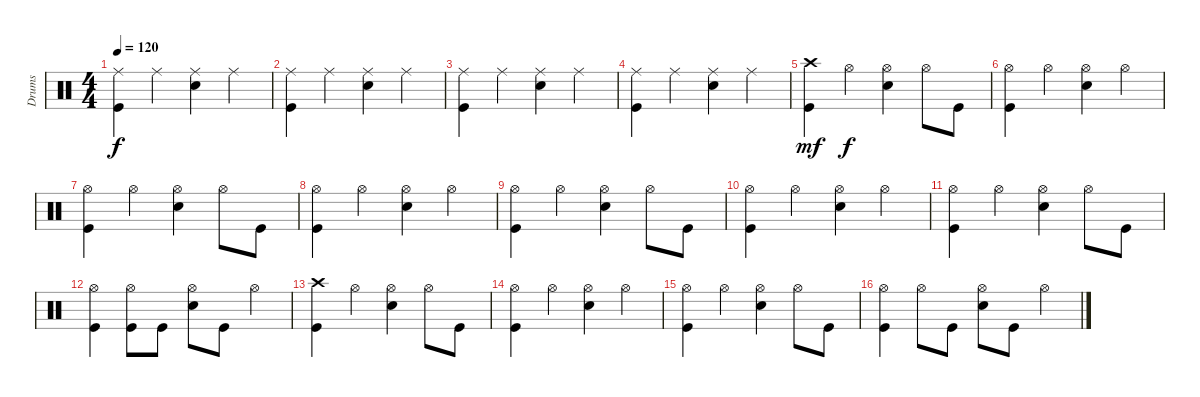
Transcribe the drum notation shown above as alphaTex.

\track ("Drums" "Drums") {instrument percussion}
\staff {score}
\articulation defaults
\ts (4 4)
\tempo 120
\clef neutral
\ks c
("Ride (middle)" "Kick (hit)").4{dy f} "Ride (middle)".4 ("Ride (middle)" "Snare (hit) 2").4 "Ride (middle)".4 |
("Ride (middle)" "Kick (hit)").4 "Ride (middle)".4 ("Ride (middle)" "Snare (hit) 2").4 "Ride (middle)".4 |
("Ride (middle)" "Kick (hit)").4 "Ride (middle)".4 ("Ride (middle)" "Snare (hit) 2").4 "Ride (middle)".4 |
("Ride (middle)" "Kick (hit)").4 "Ride (middle)".4 ("Ride (middle)" "Snare (hit) 2").4 "Ride (middle)".4 |
("Crash high (hit)" "Kick (hit)").4{dy mf} "Hi-Hat (open)".4{dy f} ("Hi-Hat (open)" "Snare (hit) 2").4 "Hi-Hat (open)".8 "Kick (hit)".8 |
("Hi-Hat (open)" "Kick (hit)").4 "Hi-Hat (open)".4 ("Hi-Hat (open)" "Snare (hit) 2").4 "Hi-Hat (open)".4 |
("Hi-Hat (open)" "Kick (hit)").4 "Hi-Hat (open)".4 ("Hi-Hat (open)" "Snare (hit) 2").4 "Hi-Hat (open)".8 "Kick (hit)".8 |
("Hi-Hat (open)" "Kick (hit)").4 "Hi-Hat (open)".4 ("Hi-Hat (open)" "Snare (hit) 2").4 "Hi-Hat (open)".4 |
("Hi-Hat (open)" "Kick (hit)").4 "Hi-Hat (open)".4 ("Hi-Hat (open)" "Snare (hit) 2").4 "Hi-Hat (open)".8 "Kick (hit)".8 |
("Hi-Hat (open)" "Kick (hit)").4 "Hi-Hat (open)".4 ("Hi-Hat (open)" "Snare (hit) 2").4 "Hi-Hat (open)".4 |
("Hi-Hat (open)" "Kick (hit)").4 "Hi-Hat (open)".4 ("Hi-Hat (open)" "Snare (hit) 2").4 "Hi-Hat (open)".8 "Kick (hit)".8 |
("Hi-Hat (open)" "Kick (hit)").4 ("Hi-Hat (open)" "Kick (hit)").8 "Kick (hit)".8 ("Hi-Hat (open)" "Snare (hit) 2").8 "Kick (hit)".8 "Hi-Hat (open)".4 |
("Crash high (hit)" "Kick (hit)").4 "Hi-Hat (open)".4 ("Hi-Hat (open)" "Snare (hit) 2").4 "Hi-Hat (open)".8 "Kick (hit)".8 |
("Hi-Hat (open)" "Kick (hit)").4 "Hi-Hat (open)".4 ("Hi-Hat (open)" "Snare (hit) 2").4 "Hi-Hat (open)".4 |
("Hi-Hat (open)" "Kick (hit)").4 "Hi-Hat (open)".4 ("Hi-Hat (open)" "Snare (hit) 2").4 "Hi-Hat (open)".8 "Kick (hit)".8 |
("Hi-Hat (open)" "Kick (hit)").4 "Hi-Hat (open)".8 "Kick (hit)".8 ("Hi-Hat (open)" "Snare (hit) 2").8 "Kick (hit)".8 "Hi-Hat (open)".4
